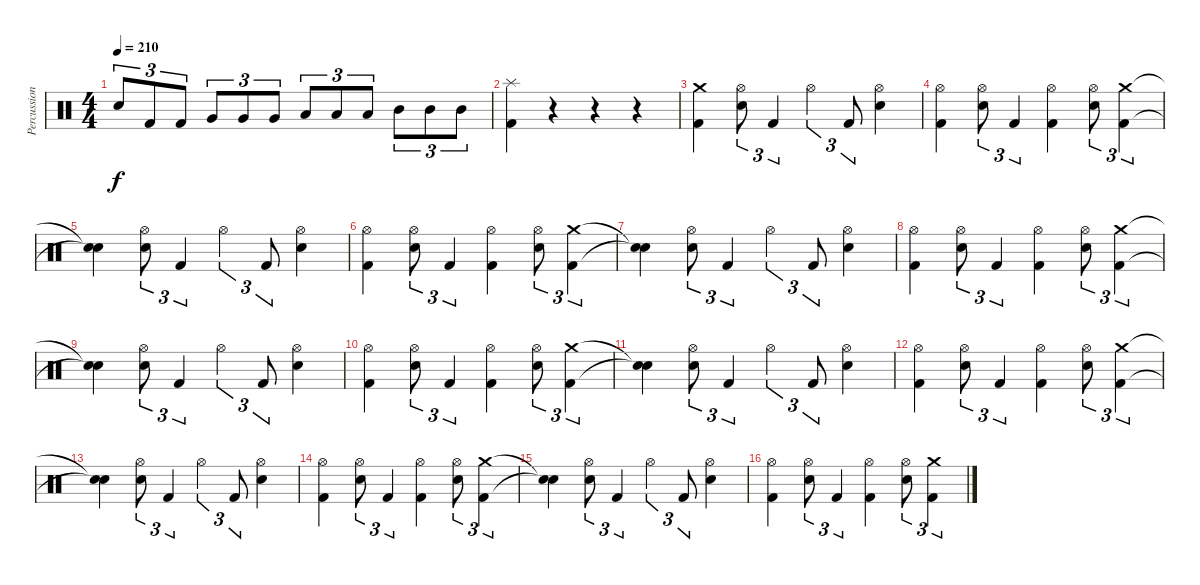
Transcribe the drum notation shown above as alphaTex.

\track ("Percussions" "Percussion") {instrument percussion}
\staff {score}
\articulation defaults
\ts (4 4)
\tempo 210
\clef neutral
\ks c "Snare (hit) 2".8{tu (3 2) dy f} "Kick (hit) 2".8{tu (3 2)} "Kick (hit) 2".8{tu (3 2)} "Very Low Tom (hit)".8{tu (3 2)} "Very Low Tom (hit)".8{tu (3 2)} "Very Low Tom (hit)".8{tu (3 2)} "Low Tom (hit)".8{tu (3 2)} "Low Tom (hit)".8{tu (3 2)} "Low Tom (hit)".8{tu (3 2)} "Mid Tom (hit)".8{tu (3 2)} "Mid Tom (hit)".8{tu (3 2)} "Mid Tom (hit)".8{tu (3 2)}
|
("Splash (hit)" "Kick (hit) 2").4 r.4 r.4 r.4 |
("Crash medium (hit)" "Kick (hit) 2").4 ("Snare (hit) 2" "Hi-Hat (open)").8{tu (3 2)} "Kick (hit) 2".4{tu (3 2)} "Hi-Hat (open)".4{tu (3 2)} "Kick (hit) 2".8{tu (3 2)} ("Snare (hit) 2" "Hi-Hat (open)").4 |
("Hi-Hat (open)" "Kick (hit) 2").4 ("Snare (hit) 2" "Hi-Hat (open)").8{tu (3 2)} "Kick (hit) 2".4{tu (3 2)} ("Hi-Hat (open)" "Kick (hit) 2").4 ("Snare (hit) 2" "Hi-Hat (open)").8{tu (3 2)} ("Crash medium (hit)" "Kick (hit) 2").4{tu (3 2)} |
("Snare (hit)"{t} "Snare (hit)"{t}).4 ("Snare (hit) 2" "Hi-Hat (open)").8{tu (3 2)} "Kick (hit) 2".4{tu (3 2)} "Hi-Hat (open)".4{tu (3 2)} "Kick (hit) 2".8{tu (3 2)} ("Snare (hit) 2" "Hi-Hat (open)").4 |
("Hi-Hat (open)" "Kick (hit) 2").4 ("Snare (hit) 2" "Hi-Hat (open)").8{tu (3 2)} "Kick (hit) 2".4{tu (3 2)} ("Hi-Hat (open)" "Kick (hit) 2").4 ("Snare (hit) 2" "Hi-Hat (open)").8{tu (3 2)} ("Crash medium (hit)" "Kick (hit) 2").4{tu (3 2)} |
("Snare (hit)"{t} "Snare (hit)"{t}).4 ("Snare (hit) 2" "Hi-Hat (open)").8{tu (3 2)} "Kick (hit) 2".4{tu (3 2)} "Hi-Hat (open)".4{tu (3 2)} "Kick (hit) 2".8{tu (3 2)} ("Snare (hit) 2" "Hi-Hat (open)").4 |
("Hi-Hat (open)" "Kick (hit) 2").4 ("Snare (hit) 2" "Hi-Hat (open)").8{tu (3 2)} "Kick (hit) 2".4{tu (3 2)} ("Hi-Hat (open)" "Kick (hit) 2").4 ("Snare (hit) 2" "Hi-Hat (open)").8{tu (3 2)} ("Crash medium (hit)" "Kick (hit) 2").4{tu (3 2)} |
("Snare (hit)"{t} "Snare (hit)"{t}).4 ("Snare (hit) 2" "Hi-Hat (open)").8{tu (3 2)} "Kick (hit) 2".4{tu (3 2)} "Hi-Hat (open)".4{tu (3 2)} "Kick (hit) 2".8{tu (3 2)} ("Snare (hit) 2" "Hi-Hat (open)").4 |
("Hi-Hat (open)" "Kick (hit) 2").4 ("Snare (hit) 2" "Hi-Hat (open)").8{tu (3 2)} "Kick (hit) 2".4{tu (3 2)} ("Hi-Hat (open)" "Kick (hit) 2").4 ("Snare (hit) 2" "Hi-Hat (open)").8{tu (3 2)} ("Crash medium (hit)" "Kick (hit) 2").4{tu (3 2)} |
("Snare (hit)"{t} "Snare (hit)"{t}).4 ("Snare (hit) 2" "Hi-Hat (open)").8{tu (3 2)} "Kick (hit) 2".4{tu (3 2)} "Hi-Hat (open)".4{tu (3 2)} "Kick (hit) 2".8{tu (3 2)} ("Snare (hit) 2" "Hi-Hat (open)").4 |
("Hi-Hat (open)" "Kick (hit) 2").4 ("Snare (hit) 2" "Hi-Hat (open)").8{tu (3 2)} "Kick (hit) 2".4{tu (3 2)} ("Hi-Hat (open)" "Kick (hit) 2").4 ("Snare (hit) 2" "Hi-Hat (open)").8{tu (3 2)} ("Crash medium (hit)" "Kick (hit) 2").4{tu (3 2)} |
("Snare (hit)"{t} "Snare (hit)"{t}).4 ("Snare (hit) 2" "Hi-Hat (open)").8{tu (3 2)} "Kick (hit) 2".4{tu (3 2)} "Hi-Hat (open)".4{tu (3 2)} "Kick (hit) 2".8{tu (3 2)} ("Snare (hit) 2" "Hi-Hat (open)").4 |
("Hi-Hat (open)" "Kick (hit) 2").4 ("Snare (hit) 2" "Hi-Hat (open)").8{tu (3 2)} "Kick (hit) 2".4{tu (3 2)} ("Hi-Hat (open)" "Kick (hit) 2").4 ("Snare (hit) 2" "Hi-Hat (open)").8{tu (3 2)} ("Crash medium (hit)" "Kick (hit) 2").4{tu (3 2)} |
("Snare (hit)"{t} "Snare (hit)"{t}).4 ("Snare (hit) 2" "Hi-Hat (open)").8{tu (3 2)} "Kick (hit) 2".4{tu (3 2)} "Hi-Hat (open)".4{tu (3 2)} "Kick (hit) 2".8{tu (3 2)} ("Snare (hit) 2" "Hi-Hat (open)").4 |
("Hi-Hat (open)" "Kick (hit) 2").4 ("Snare (hit) 2" "Hi-Hat (open)").8{tu (3 2)} "Kick (hit) 2".4{tu (3 2)} ("Hi-Hat (open)" "Kick (hit) 2").4 ("Snare (hit) 2" "Hi-Hat (open)").8{tu (3 2)} ("Crash medium (hit)" "Kick (hit) 2").4{tu (3 2)}
